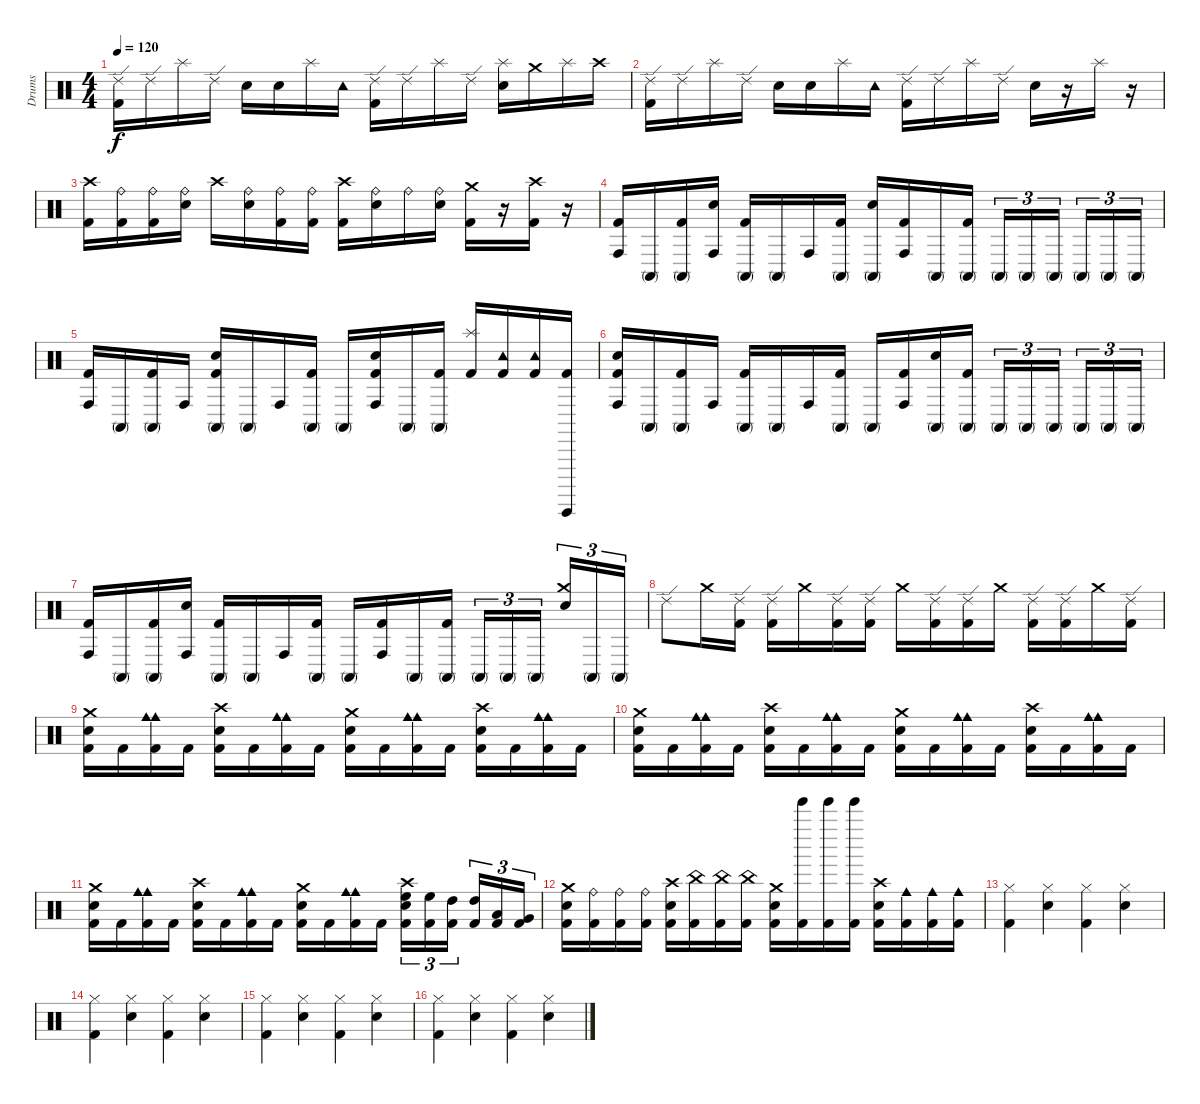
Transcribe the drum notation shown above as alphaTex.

\track ("Drums" "Drums") {instrument percussion}
\staff {score}
\articulation defaults
\ts (4 4)
\tempo 120
\clef neutral
\ks c
("Ride (edge) 2" "Kick (hit) 2").16{dy f} "Ride (edge) 2".16 "Splash (hit)".16 "Ride (edge) 2".16 "Snare (hit) 2".16 "Snare (hit) 2".16 "Splash (hit)".16 "Tambourine (hit)".16 ("Ride (edge) 2" "Kick (hit) 2").16 "Ride (edge) 2".16 "Splash (hit)".16 "Ride (edge) 2".16 ("Splash (hit)" "Snare (hit) 2").16 "Crash medium (hit)".16 "Splash (hit)".16 "Crash high (hit)".16 |
("Ride (edge) 2" "Kick (hit) 2").16 "Ride (edge) 2".16 "Splash (hit)".16 "Ride (edge) 2".16 "Snare (hit) 2".16 "Snare (hit) 2".16 "Splash (hit)".16 "Tambourine (hit)".16 ("Ride (edge) 2" "Kick (hit) 2").16 "Ride (edge) 2".16 "Splash (hit)".16 "Ride (edge) 2".16 "Snare (hit) 2".16 r.16 "Splash (hit)".16 r.16 |
("Crash high (hit)" "Kick (hit) 2").16 ("Ride (bell)" "Kick (hit) 2").16 ("Ride (bell)" "Kick (hit) 2").16 ("Ride (bell)" "Snare (hit) 2").16 "Crash high (hit)".16 ("Ride (bell)" "Snare (hit) 2").16 ("Ride (bell)" "Kick (hit) 2").16 ("Ride (bell)" "Kick (hit) 2").16 ("Crash high (hit)" "Kick (hit) 2").16 ("Ride (bell)" "Snare (hit) 2").16 "Ride (bell)".16 ("Ride (bell)" "Snare (hit) 2").16 ("Crash medium (hit)" "Kick (hit) 2").16 r.16 ("Crash high (hit)" "Kick (hit) 2").16 r.16 |
("Conga high (hit)" "Kick (hit) 2").16 "Conga high (mute)".16 ("Conga high (mute)" "Kick (hit) 2").16 ("Conga high (hit)" "Snare (hit) 2").16 ("Conga high (mute)" "Kick (hit) 2").16 "Conga high (mute)".16 "Conga high (hit)".16 ("Conga high (mute)" "Kick (hit) 2").16 ("Conga high (mute)" "Snare (hit) 2").16 ("Conga high (hit)" "Kick (hit) 2").16 "Conga high (mute)".16 ("Conga high (mute)" "Kick (hit) 2").16 "Conga high (mute)".16{tu (3 2)} "Conga high (mute)".16{tu (3 2)} "Conga high (mute)".16{tu (3 2)} "Conga high (mute)".16{tu (3 2)} "Conga high (mute)".16{tu (3 2)} "Conga high (mute)".16{tu (3 2)} |
("Conga high (hit)" "Kick (hit) 2").16 "Conga high (mute)".16 ("Conga high (mute)" "Kick (hit) 2").16 "Conga high (hit)".16 ("Conga high (mute)" "Snare (hit) 2" "Kick (hit) 2").16 "Conga high (mute)".16 "Conga high (hit)".16 ("Conga high (mute)" "Kick (hit) 2").16 "Conga high (mute)".16 ("Conga high (hit)" "Snare (hit) 2" "Kick (hit) 2").16 "Conga high (mute)".16 ("Conga high (mute)" "Kick (hit) 2").16 ("Splash (hit)" "Kick (hit) 2").16 ("Tambourine (hit)" "Kick (hit) 2").16 ("Tambourine (hit)" "Kick (hit) 2").16 ("Guiro (hit)" "Kick (hit) 2").16 |
("Conga high (hit)" "Snare (hit) 2" "Kick (hit) 2").16 "Conga high (mute)".16 ("Conga high (mute)" "Kick (hit) 2").16 "Conga high (hit)".16 ("Conga high (mute)" "Kick (hit) 2").16 "Conga high (mute)".16 "Conga high (hit)".16 ("Conga high (mute)" "Kick (hit) 2").16 "Conga high (mute)".16 ("Conga high (hit)" "Kick (hit) 2").16 ("Conga high (mute)" "Snare (hit) 2").16 ("Conga high (mute)" "Kick (hit) 2").16 "Conga high (mute)".16{tu (3 2)} "Conga high (mute)".16{tu (3 2)} "Conga high (mute)".16{tu (3 2)} "Conga high (mute)".16{tu (3 2)} "Conga high (mute)".16{tu (3 2)} "Conga high (mute)".16{tu (3 2)} |
("Conga high (hit)" "Kick (hit) 2").16 "Conga high (mute)".16 ("Conga high (mute)" "Kick (hit) 2").16 ("Conga high (hit)" "Snare (hit) 2").16 ("Conga high (mute)" "Kick (hit) 2").16 "Conga high (mute)".16 "Conga high (hit)".16 ("Conga high (mute)" "Kick (hit) 2").16 "Conga high (mute)".16 ("Conga high (hit)" "Kick (hit) 2").16 "Conga high (mute)".16 ("Conga high (mute)" "Kick (hit) 2").16 "Conga high (mute)".16{tu (3 2)} "Conga high (mute)".16{tu (3 2)} "Conga high (mute)".16{tu (3 2)} ("Crash medium (hit)" "Snare (hit) 2").16{tu (3 2)} "Conga high (mute)".16{tu (3 2)} "Conga high (mute)".16{tu (3 2)} |
"Ride (edge) 2".8 "Crash medium (hit)".16 ("Ride (edge) 2" "Kick (hit) 2").16 ("Ride (edge) 2" "Kick (hit) 2").16 "Crash medium (hit)".16 ("Ride (edge) 2" "Kick (hit) 2").16 ("Ride (edge) 2" "Kick (hit) 2").16 "Crash medium (hit)".16 ("Ride (edge) 2" "Kick (hit) 2").16 ("Ride (edge) 2" "Kick (hit) 2").16 "Crash medium (hit)".16 ("Ride (edge) 2" "Kick (hit) 2").16 ("Ride (edge) 2" "Kick (hit) 2").16 "Crash medium (hit)".16 ("Ride (edge) 2" "Kick (hit) 2").16 |
("Crash medium (hit)" "Snare (hit) 2" "Kick (hit) 2").16 "Kick (hit) 2".16 ("Cowbell medium (hit)" "Cowbell medium (hit)" "Kick (hit) 2").16 "Kick (hit) 2".16 ("Crash high (hit)" "Snare (hit) 2" "Kick (hit) 2").16 "Kick (hit) 2".16 ("Cowbell medium (hit)" "Cowbell medium (hit)" "Kick (hit) 2").16 "Kick (hit) 2".16 ("Crash medium (hit)" "Snare (hit) 2" "Kick (hit) 2").16 "Kick (hit) 2".16 ("Cowbell medium (hit)" "Cowbell medium (hit)" "Kick (hit) 2").16 "Kick (hit) 2".16 ("Crash high (hit)" "Snare (hit) 2" "Kick (hit) 2").16 "Kick (hit) 2".16 ("Cowbell medium (hit)" "Cowbell medium (hit)" "Kick (hit) 2").16 "Kick (hit) 2".16 |
("Crash medium (hit)" "Snare (hit) 2" "Kick (hit) 2").16 "Kick (hit) 2".16 ("Cowbell medium (hit)" "Cowbell medium (hit)" "Kick (hit) 2").16 "Kick (hit) 2".16 ("Crash high (hit)" "Snare (hit) 2" "Kick (hit) 2").16 "Kick (hit) 2".16 ("Cowbell medium (hit)" "Cowbell medium (hit)" "Kick (hit) 2").16 "Kick (hit) 2".16 ("Crash medium (hit)" "Snare (hit) 2" "Kick (hit) 2").16 "Kick (hit) 2".16 ("Cowbell medium (hit)" "Cowbell medium (hit)" "Kick (hit) 2").16 "Kick (hit) 2".16 ("Crash high (hit)" "Snare (hit) 2" "Kick (hit) 2").16 "Kick (hit) 2".16 ("Cowbell medium (hit)" "Cowbell medium (hit)" "Kick (hit) 2").16 "Kick (hit) 2".16 |
("Crash medium (hit)" "Snare (hit) 2" "Kick (hit) 2").16 "Kick (hit) 2".16 ("Cowbell medium (hit)" "Cowbell medium (hit)" "Kick (hit) 2").16 "Kick (hit) 2".16 ("Crash high (hit)" "Snare (hit) 2" "Kick (hit) 2").16 "Kick (hit) 2".16 ("Cowbell medium (hit)" "Cowbell medium (hit)" "Kick (hit) 2").16 "Kick (hit) 2".16 ("Crash medium (hit)" "Snare (hit) 2" "Kick (hit) 2").16 "Kick (hit) 2".16 ("Cowbell medium (hit)" "Cowbell medium (hit)" "Kick (hit) 2").16 "Kick (hit) 2".16 ("Crash high (hit)" "High Floor Tom (hit)" "Snare (hit) 2" "Kick (hit) 2").16{tu (3 2)} ("High Floor Tom (hit)" "Kick (hit) 2").16{tu (3 2)} ("High Tom (hit)" "Kick (hit) 2").16{tu (3 2)} ("High Tom (hit)" "Kick (hit) 2").16{tu (3 2)} ("Low Tom (hit)" "Kick (hit) 2").16{tu (3 2)} ("Very Low Tom (hit)" "Kick (hit) 2").16{tu (3 2)} |
("Crash medium (hit)" "Snare (hit) 2" "Kick (hit) 2").16 ("Ride (bell)" "Kick (hit) 2").16 ("Ride (bell)" "Kick (hit) 2").16 ("Ride (bell)" "Kick (hit) 2").16 ("Crash high (hit)" "Snare (hit) 2" "Kick (hit) 2").16 ("China (hit)" "Kick (hit) 2").16 ("China (hit)" "Kick (hit) 2").16 ("China (hit)" "Kick (hit) 2").16 ("Crash medium (hit)" "Snare (hit) 2" "Kick (hit) 2").16 ("Tinkle Bell (hit)" "Kick (hit) 2").16 ("Tinkle Bell (hit)" "Kick (hit) 2").16 ("Tinkle Bell (hit)" "Kick (hit) 2").16 ("Crash high (hit)" "Snare (hit) 2" "Kick (hit) 2").16 ("Cowbell medium (hit)" "Kick (hit) 2").16 ("Cowbell medium (hit)" "Kick (hit) 2").16 ("Cowbell medium (hit)" "Kick (hit) 2").16 |
("Hi-Hat (closed)" "Kick (hit) 2").4 ("Hi-Hat (closed)" "Snare (hit) 2").4 ("Hi-Hat (closed)" "Kick (hit) 2").4 ("Hi-Hat (closed)" "Snare (hit) 2").4 |
("Hi-Hat (closed)" "Kick (hit) 2").4 ("Hi-Hat (closed)" "Snare (hit) 2").4 ("Hi-Hat (closed)" "Kick (hit) 2").4 ("Hi-Hat (closed)" "Snare (hit) 2").4 |
("Hi-Hat (closed)" "Kick (hit) 2").4 ("Hi-Hat (closed)" "Snare (hit) 2").4 ("Hi-Hat (closed)" "Kick (hit) 2").4 ("Hi-Hat (closed)" "Snare (hit) 2").4 |
("Hi-Hat (closed)" "Kick (hit) 2").4{volume 0} ("Hi-Hat (closed)" "Snare (hit) 2").4 ("Hi-Hat (closed)" "Kick (hit) 2").4 ("Hi-Hat (closed)" "Snare (hit) 2").4
